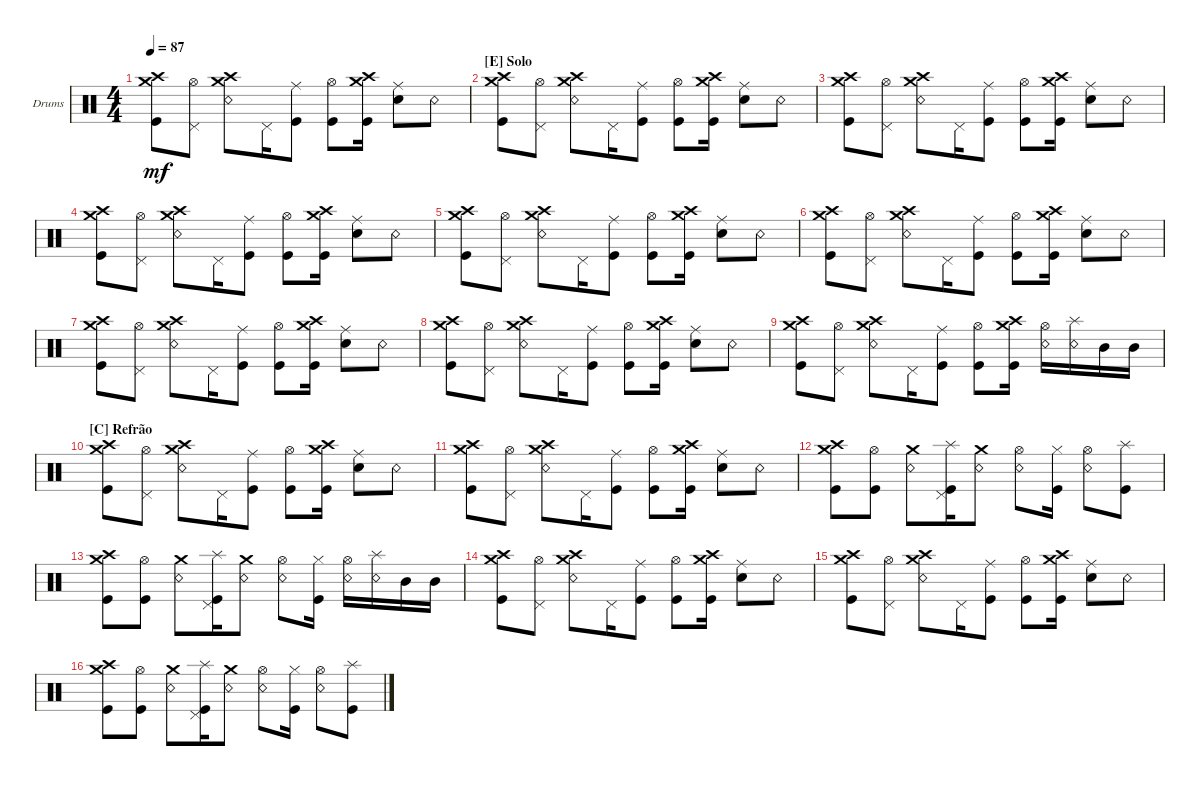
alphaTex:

\defaultSystemsLayout 4
\bracketExtendMode groupsimilarinstruments
\firstSystemTrackNameOrientation horizontal
\otherSystemsTrackNameOrientation horizontal
\track ("Drumkit" "Drums") {multiBarRest instrument percussion}
\staff {score}
\articulation defaults
\ts (4 4)
\tempo 87
\clef neutral
\ks c
("Kick (hit)" "Crash high (hit)" "Crash medium (hit)").8{dy mf} ("Hi-Hat (open)" "Pedal Hi-Hat (hit)").8 ("Snare (rim shot)" "Crash high (hit)" "Crash medium (hit)").8 "Pedal Hi-Hat (hit)".16 ("Ride (middle)" "Kick (hit)").8 ("Kick (hit)" "Hi-Hat (open)").8 ("Kick (hit)" "Crash high (hit)" "Crash medium (hit)").16 ("Ride (middle)" "Snare (hit) 2").8 "Snare (rim shot)".8 |
\section ("E" "Solo")
("Kick (hit)" "Crash high (hit)" "Crash medium (hit)").8 ("Hi-Hat (open)" "Pedal Hi-Hat (hit)").8 ("Snare (rim shot)" "Crash high (hit)" "Crash medium (hit)").8 "Pedal Hi-Hat (hit)".16 ("Ride (middle)" "Kick (hit)").8 ("Kick (hit)" "Hi-Hat (open)").8 ("Kick (hit)" "Crash high (hit)" "Crash medium (hit)").16 ("Ride (middle)" "Snare (hit) 2").8 "Snare (rim shot)".8 |
("Kick (hit)" "Crash high (hit)" "Crash medium (hit)").8 ("Hi-Hat (open)" "Pedal Hi-Hat (hit)").8 ("Snare (rim shot)" "Crash high (hit)" "Crash medium (hit)").8 "Pedal Hi-Hat (hit)".16 ("Ride (middle)" "Kick (hit)").8 ("Kick (hit)" "Hi-Hat (open)").8 ("Kick (hit)" "Crash high (hit)" "Crash medium (hit)").16 ("Ride (middle)" "Snare (hit) 2").8 "Snare (rim shot)".8 |
("Kick (hit)" "Crash high (hit)" "Crash medium (hit)").8 ("Hi-Hat (open)" "Pedal Hi-Hat (hit)").8 ("Snare (rim shot)" "Crash high (hit)" "Crash medium (hit)").8 "Pedal Hi-Hat (hit)".16 ("Ride (middle)" "Kick (hit)").8 ("Kick (hit)" "Hi-Hat (open)").8 ("Kick (hit)" "Crash high (hit)" "Crash medium (hit)").16 ("Ride (middle)" "Snare (hit) 2").8 "Snare (rim shot)".8 |
("Kick (hit)" "Crash high (hit)" "Crash medium (hit)").8 ("Hi-Hat (open)" "Pedal Hi-Hat (hit)").8 ("Snare (rim shot)" "Crash high (hit)" "Crash medium (hit)").8 "Pedal Hi-Hat (hit)".16 ("Ride (middle)" "Kick (hit)").8 ("Kick (hit)" "Hi-Hat (open)").8 ("Kick (hit)" "Crash high (hit)" "Crash medium (hit)").16 ("Ride (middle)" "Snare (hit) 2").8 "Snare (rim shot)".8 |
("Kick (hit)" "Crash high (hit)" "Crash medium (hit)").8 ("Hi-Hat (open)" "Pedal Hi-Hat (hit)").8 ("Snare (rim shot)" "Crash high (hit)" "Crash medium (hit)").8 "Pedal Hi-Hat (hit)".16 ("Ride (middle)" "Kick (hit)").8 ("Kick (hit)" "Hi-Hat (open)").8 ("Kick (hit)" "Crash high (hit)" "Crash medium (hit)").16 ("Ride (middle)" "Snare (hit) 2").8 "Snare (rim shot)".8 |
("Kick (hit)" "Crash high (hit)" "Crash medium (hit)").8 ("Hi-Hat (open)" "Pedal Hi-Hat (hit)").8 ("Snare (rim shot)" "Crash high (hit)" "Crash medium (hit)").8 "Pedal Hi-Hat (hit)".16 ("Ride (middle)" "Kick (hit)").8 ("Kick (hit)" "Hi-Hat (open)").8 ("Kick (hit)" "Crash high (hit)" "Crash medium (hit)").16 ("Ride (middle)" "Snare (hit) 2").8 "Snare (rim shot)".8 |
("Kick (hit)" "Crash high (hit)" "Crash medium (hit)").8 ("Hi-Hat (open)" "Pedal Hi-Hat (hit)").8 ("Snare (rim shot)" "Crash high (hit)" "Crash medium (hit)").8 "Pedal Hi-Hat (hit)".16 ("Ride (middle)" "Kick (hit)").8 ("Kick (hit)" "Hi-Hat (open)").8 ("Kick (hit)" "Crash high (hit)" "Crash medium (hit)").16 ("Ride (middle)" "Snare (hit) 2").8 "Snare (rim shot)".8 |
("Kick (hit)" "Crash high (hit)" "Crash medium (hit)").8 ("Hi-Hat (open)" "Pedal Hi-Hat (hit)").8 ("Snare (rim shot)" "Crash high (hit)" "Crash medium (hit)").8 "Pedal Hi-Hat (hit)".16 ("Ride (middle)" "Kick (hit)").8 ("Kick (hit)" "Hi-Hat (open)").8 ("Kick (hit)" "Crash high (hit)" "Crash medium (hit)").16 ("Snare (rim shot)" "Hi-Hat (open)").16 ("Splash (hit)" "Snare (rim shot)").16 "Mid Tom (hit)".16 "Mid Tom (hit)".16 |
\section ("C" "Refrão")
("Kick (hit)" "Crash high (hit)" "Crash medium (hit)").8 ("Hi-Hat (open)" "Pedal Hi-Hat (hit)").8 ("Snare (rim shot)" "Crash high (hit)" "Crash medium (hit)").8 "Pedal Hi-Hat (hit)".16 ("Ride (middle)" "Kick (hit)").8 ("Kick (hit)" "Hi-Hat (open)").8 ("Kick (hit)" "Crash high (hit)" "Crash medium (hit)").16 ("Ride (middle)" "Snare (hit) 2").8 "Snare (rim shot)".8 |
("Kick (hit)" "Crash high (hit)" "Crash medium (hit)").8 ("Hi-Hat (open)" "Pedal Hi-Hat (hit)").8 ("Snare (rim shot)" "Crash high (hit)" "Crash medium (hit)").8 "Pedal Hi-Hat (hit)".16 ("Ride (middle)" "Kick (hit)").8 ("Kick (hit)" "Hi-Hat (open)").8 ("Kick (hit)" "Crash high (hit)" "Crash medium (hit)").16 ("Ride (middle)" "Snare (hit) 2").8 "Snare (rim shot)".8 |
("Kick (hit)" "Crash high (hit)" "Crash medium (hit)").8 ("Kick (hit)" "Hi-Hat (open)").8 ("Snare (rim shot)" "Crash medium (hit)").8 ("Kick (hit)" "Pedal Hi-Hat (hit)" "Splash (hit)").16 ("Snare (rim shot)" "Crash medium (hit)").8 ("Snare (rim shot)" "Hi-Hat (open)").8 ("Kick (hit)" "Hi-Hat (closed)").16 ("Snare (rim shot)" "Hi-Hat (open)").8 ("Kick (hit)" "Splash (hit)").8 |
("Kick (hit)" "Crash high (hit)" "Crash medium (hit)").8 ("Kick (hit)" "Hi-Hat (open)").8 ("Snare (rim shot)" "Crash medium (hit)").8 ("Kick (hit)" "Pedal Hi-Hat (hit)" "Splash (hit)").16 ("Snare (rim shot)" "Crash medium (hit)").8 ("Snare (rim shot)" "Hi-Hat (open)").8 ("Kick (hit)" "Hi-Hat (closed)").16 ("Snare (rim shot)" "Hi-Hat (open)").16 ("Splash (hit)" "Snare (rim shot)").16 "Mid Tom (hit)".16 "Mid Tom (hit)".16 |
("Kick (hit)" "Crash high (hit)" "Crash medium (hit)").8 ("Hi-Hat (open)" "Pedal Hi-Hat (hit)").8 ("Snare (rim shot)" "Crash high (hit)" "Crash medium (hit)").8 "Pedal Hi-Hat (hit)".16 ("Ride (middle)" "Kick (hit)").8 ("Kick (hit)" "Hi-Hat (open)").8 ("Kick (hit)" "Crash high (hit)" "Crash medium (hit)").16 ("Ride (middle)" "Snare (hit) 2").8 "Snare (rim shot)".8 |
("Kick (hit)" "Crash high (hit)" "Crash medium (hit)").8 ("Hi-Hat (open)" "Pedal Hi-Hat (hit)").8 ("Snare (rim shot)" "Crash high (hit)" "Crash medium (hit)").8 "Pedal Hi-Hat (hit)".16 ("Ride (middle)" "Kick (hit)").8 ("Kick (hit)" "Hi-Hat (open)").8 ("Kick (hit)" "Crash high (hit)" "Crash medium (hit)").16 ("Ride (middle)" "Snare (hit) 2").8 "Snare (rim shot)".8 |
("Kick (hit)" "Crash high (hit)" "Crash medium (hit)").8 ("Kick (hit)" "Hi-Hat (open)").8 ("Snare (rim shot)" "Crash medium (hit)").8 ("Kick (hit)" "Pedal Hi-Hat (hit)" "Splash (hit)").16 ("Snare (rim shot)" "Crash medium (hit)").8 ("Snare (rim shot)" "Hi-Hat (open)").8 ("Kick (hit)" "Hi-Hat (closed)").16 ("Snare (rim shot)" "Hi-Hat (open)").8 ("Kick (hit)" "Splash (hit)").8
